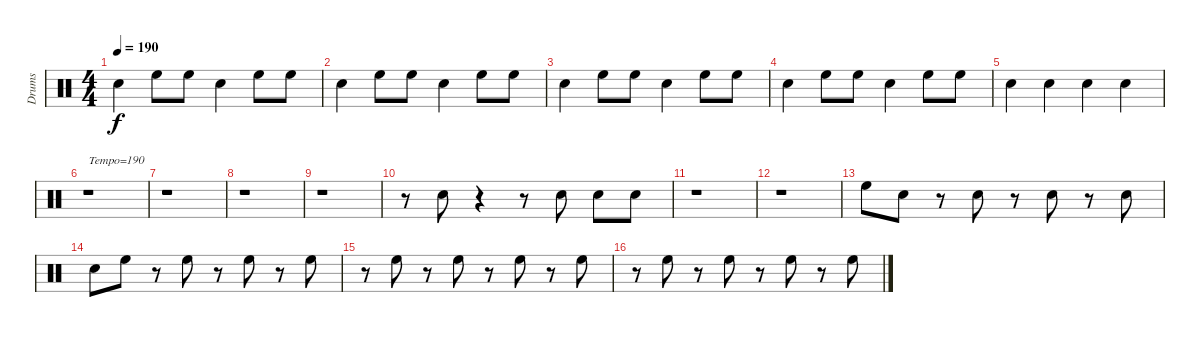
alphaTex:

\track ("Drums" "Drums") {instrument percussion}
\staff {score}
\articulation defaults
\ts (4 4)
\tempo 190
\clef neutral
\ks c "Electric Snare (hit)".4{dy f} "High Floor Tom (hit)".8 "High Floor Tom (hit)".8 "Electric Snare (hit)".4 "High Floor Tom (hit)".8 "High Floor Tom (hit)".8
|
"Electric Snare (hit)".4 "High Floor Tom (hit)".8 "High Floor Tom (hit)".8 "Electric Snare (hit)".4 "High Floor Tom (hit)".8 "High Floor Tom (hit)".8 |
"Electric Snare (hit)".4 "High Floor Tom (hit)".8 "High Floor Tom (hit)".8 "Electric Snare (hit)".4 "High Floor Tom (hit)".8 "High Floor Tom (hit)".8 |
"Electric Snare (hit)".4 "High Floor Tom (hit)".8 "High Floor Tom (hit)".8 "Electric Snare (hit)".4 "High Floor Tom (hit)".8 "High Floor Tom (hit)".8 |
"Electric Snare (hit)".4 "Electric Snare (hit)".4 "Electric Snare (hit)".4 "Electric Snare (hit)".4 |
r.1{txt "Tempo=190"} |
r.1 |
r.1 |
r.1 |
r.8 "Electric Snare (hit)".8 r.4 r.8 "Electric Snare (hit)".8 "Electric Snare (hit)".8 "Electric Snare (hit)".8 |
r.1 |
r.1 |
"High Floor Tom (hit)".8 "Electric Snare (hit)".8 r.8 "Electric Snare (hit)".8 r.8 "Electric Snare (hit)".8 r.8 "Electric Snare (hit)".8 |
"Electric Snare (hit)".8 "High Floor Tom (hit)".8 r.8 "High Floor Tom (hit)".8 r.8 "High Floor Tom (hit)".8 r.8 "High Floor Tom (hit)".8 |
r.8 "High Floor Tom (hit)".8 r.8 "High Floor Tom (hit)".8 r.8 "High Floor Tom (hit)".8 r.8 "High Floor Tom (hit)".8 |
r.8 "High Floor Tom (hit)".8 r.8 "High Floor Tom (hit)".8 r.8 "High Floor Tom (hit)".8 r.8 "High Floor Tom (hit)".8
